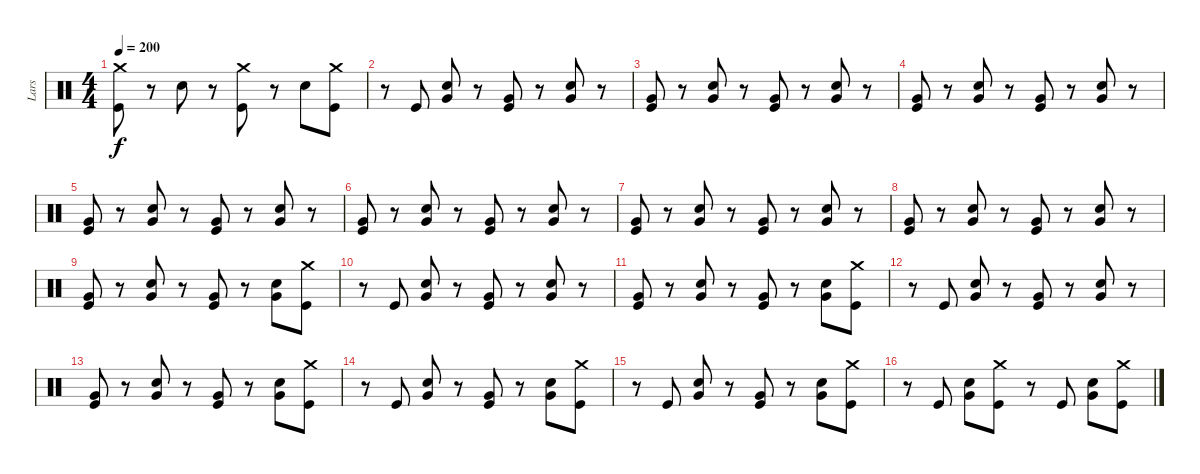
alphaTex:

\track ("Lars" "Lars") {instrument percussion}
\staff {score}
\articulation defaults
\ts (4 4)
\tempo 200
\clef neutral
\ks c
("Crash medium (hit)" "Kick (hit)").8{dy f} r.8 "Snare (hit) 2".8 r.8 ("Crash medium (hit)" "Kick (hit)").8 r.8 "Snare (hit) 2".8 ("Crash medium (hit)" "Kick (hit)").8 |
r.8 "Kick (hit)".8 ("Very Low Tom (hit)" "Snare (hit) 2").8 r.8 ("Very Low Tom (hit)" "Kick (hit)").8 r.8 ("Very Low Tom (hit)" "Snare (hit) 2").8 r.8 |
("Very Low Tom (hit)" "Kick (hit)").8 r.8 ("Snare (hit) 2" "Very Low Tom (hit)").8 r.8 ("Very Low Tom (hit)" "Kick (hit)").8 r.8 ("Very Low Tom (hit)" "Snare (hit) 2").8 r.8 |
("Very Low Tom (hit)" "Kick (hit)").8 r.8 ("Snare (hit) 2" "Very Low Tom (hit)").8 r.8 ("Very Low Tom (hit)" "Kick (hit)").8 r.8 ("Very Low Tom (hit)" "Snare (hit) 2").8 r.8 |
("Very Low Tom (hit)" "Kick (hit)").8 r.8 ("Snare (hit) 2" "Very Low Tom (hit)").8 r.8 ("Very Low Tom (hit)" "Kick (hit)").8 r.8 ("Very Low Tom (hit)" "Snare (hit) 2").8 r.8 |
("Very Low Tom (hit)" "Kick (hit)").8 r.8 ("Snare (hit) 2" "Very Low Tom (hit)").8 r.8 ("Very Low Tom (hit)" "Kick (hit)").8 r.8 ("Very Low Tom (hit)" "Snare (hit) 2").8 r.8 |
("Very Low Tom (hit)" "Kick (hit)").8 r.8 ("Snare (hit) 2" "Very Low Tom (hit)").8 r.8 ("Very Low Tom (hit)" "Kick (hit)").8 r.8 ("Very Low Tom (hit)" "Snare (hit) 2").8 r.8 |
("Very Low Tom (hit)" "Kick (hit)").8 r.8 ("Snare (hit) 2" "Very Low Tom (hit)").8 r.8 ("Very Low Tom (hit)" "Kick (hit)").8 r.8 ("Very Low Tom (hit)" "Snare (hit) 2").8 r.8 |
("Very Low Tom (hit)" "Kick (hit)").8 r.8 ("Snare (hit) 2" "Very Low Tom (hit)").8 r.8 ("Very Low Tom (hit)" "Kick (hit)").8 r.8 ("Very Low Tom (hit)" "Snare (hit) 2").8 ("Crash medium (hit)" "Kick (hit)").8 |
r.8 "Kick (hit)".8 ("Snare (hit) 2" "Very Low Tom (hit)").8 r.8 ("Very Low Tom (hit)" "Kick (hit)").8 r.8 ("Very Low Tom (hit)" "Snare (hit) 2").8 r.8 |
("Very Low Tom (hit)" "Kick (hit)").8 r.8 ("Snare (hit) 2" "Very Low Tom (hit)").8 r.8 ("Very Low Tom (hit)" "Kick (hit)").8 r.8 ("Very Low Tom (hit)" "Snare (hit) 2").8 ("Crash medium (hit)" "Kick (hit)").8 |
r.8 "Kick (hit)".8 ("Snare (hit) 2" "Very Low Tom (hit)").8 r.8 ("Very Low Tom (hit)" "Kick (hit)").8 r.8 ("Very Low Tom (hit)" "Snare (hit) 2").8 r.8 |
("Very Low Tom (hit)" "Kick (hit)").8 r.8 ("Snare (hit) 2" "Very Low Tom (hit)").8 r.8 ("Very Low Tom (hit)" "Kick (hit)").8 r.8 ("Very Low Tom (hit)" "Snare (hit) 2").8 ("Crash medium (hit)" "Kick (hit)").8 |
r.8 "Kick (hit)".8 ("Snare (hit) 2" "Very Low Tom (hit)").8 r.8 ("Very Low Tom (hit)" "Kick (hit)").8 r.8 ("Very Low Tom (hit)" "Snare (hit) 2").8 ("Crash medium (hit)" "Kick (hit)").8 |
r.8 "Kick (hit)".8 ("Snare (hit) 2" "Very Low Tom (hit)").8 r.8 ("Very Low Tom (hit)" "Kick (hit)").8 r.8 ("Very Low Tom (hit)" "Snare (hit) 2").8 ("Crash medium (hit)" "Kick (hit)").8 |
r.8 "Kick (hit)".8 ("Very Low Tom (hit)" "Snare (hit) 2").8 ("Crash medium (hit)" "Kick (hit)").8 r.8 "Kick (hit)".8 ("Very Low Tom (hit)" "Snare (hit) 2").8 ("Crash medium (hit)" "Kick (hit)").8
